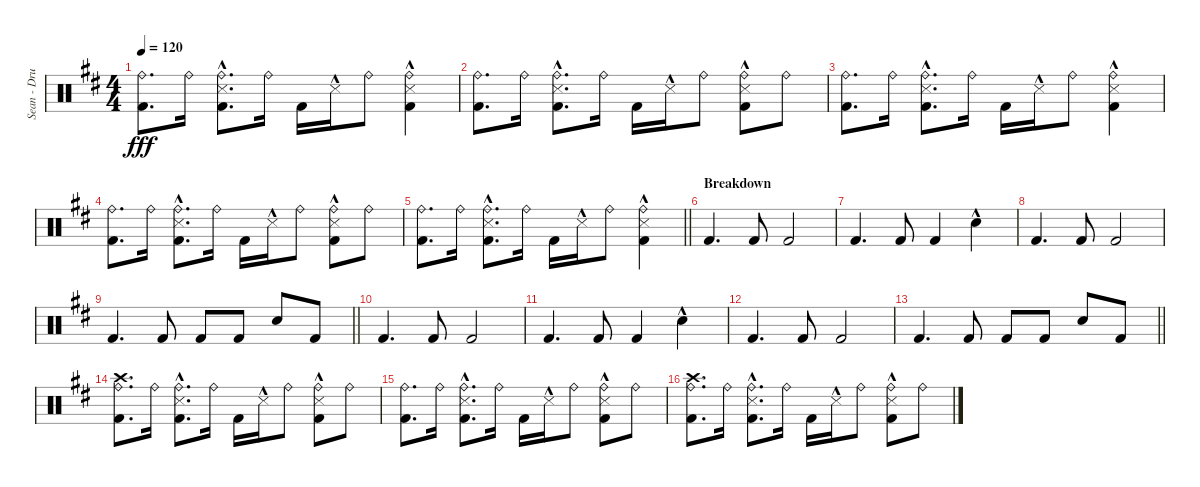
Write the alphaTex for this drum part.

\track ("Sean - Drums" "Sean - Dru") {instrument percussion}
\staff {score}
\articulation defaults
\ts (4 4)
\tempo 120
\clef neutral
\ks d
("Ride (bell)" "Kick (hit) 2").8{d dy fff} "Ride (bell)".16 ("Ride (bell)" "Metronome (hit)"{hac} "Kick (hit) 2").8{d} "Ride (bell)".16 "Kick (hit) 2".16 "Metronome (hit)"{hac}.16 "Ride (bell)".8 ("Ride (bell)" "Metronome (hit)"{hac} "Kick (hit) 2").4 |
("Ride (bell)" "Kick (hit) 2").8{d} "Ride (bell)".16 ("Ride (bell)" "Metronome (hit)"{hac} "Kick (hit) 2").8{d} "Ride (bell)".16 "Kick (hit) 2".16 "Metronome (hit)"{hac}.16 "Ride (bell)".8 ("Ride (bell)" "Metronome (hit)"{hac} "Kick (hit) 2").8 "Ride (bell)".8 |
("Ride (bell)" "Kick (hit) 2").8{d} "Ride (bell)".16 ("Ride (bell)" "Metronome (hit)"{hac} "Kick (hit) 2").8{d} "Ride (bell)".16 "Kick (hit) 2".16 "Metronome (hit)"{hac}.16 "Ride (bell)".8 ("Ride (bell)" "Metronome (hit)"{hac} "Kick (hit) 2").4 |
("Ride (bell)" "Kick (hit) 2").8{d} "Ride (bell)".16 ("Ride (bell)" "Metronome (hit)"{hac} "Kick (hit) 2").8{d} "Ride (bell)".16 "Kick (hit) 2".16 "Metronome (hit)"{hac}.16 "Ride (bell)".8 ("Ride (bell)" "Metronome (hit)"{hac} "Kick (hit) 2").8 "Ride (bell)".8 |
\barLineRight lightlight
("Ride (bell)" "Kick (hit) 2").8{d} "Ride (bell)".16 ("Ride (bell)" "Metronome (hit)"{hac} "Kick (hit) 2").8{d} "Ride (bell)".16 "Kick (hit) 2".16 "Metronome (hit)"{hac}.16 "Ride (bell)".8 ("Ride (bell)" "Metronome (hit)"{hac} "Kick (hit) 2").4 |
\section ("" "Breakdown")
"Kick (hit) 2".4{d} "Kick (hit) 2".8 "Kick (hit) 2".2 |
"Kick (hit) 2".4{d} "Kick (hit) 2".8 "Kick (hit) 2".4 "Snare (hit) 2"{hac}.4 |
"Kick (hit) 2".4{d} "Kick (hit) 2".8 "Kick (hit) 2".2 |
\barLineRight lightlight "Kick (hit) 2".4{d} "Kick (hit) 2".8 "Kick (hit) 2".8 "Kick (hit) 2".8 "Snare (hit) 2".8 "Kick (hit) 2".8
|
"Kick (hit) 2".4{d} "Kick (hit) 2".8 "Kick (hit) 2".2 |
"Kick (hit) 2".4{d} "Kick (hit) 2".8 "Kick (hit) 2".4 "Snare (hit) 2"{hac}.4 |
"Kick (hit) 2".4{d} "Kick (hit) 2".8 "Kick (hit) 2".2 |
\barLineRight lightlight "Kick (hit) 2".4{d} "Kick (hit) 2".8 "Kick (hit) 2".8 "Kick (hit) 2".8 "Snare (hit) 2".8 "Kick (hit) 2".8
|
("Ride (bell)" "Crash high (hit)" "Kick (hit) 2").8{d} "Ride (bell)".16 ("Ride (bell)" "Metronome (hit)"{hac} "Kick (hit) 2").8{d} "Ride (bell)".16 "Kick (hit) 2".16 "Metronome (hit)"{hac}.16 "Ride (bell)".8 ("Ride (bell)" "Metronome (hit)"{hac} "Kick (hit) 2").8 "Ride (bell)".8 |
("Ride (bell)" "Kick (hit) 2").8{d} "Ride (bell)".16 ("Ride (bell)" "Metronome (hit)"{hac} "Kick (hit) 2").8{d} "Ride (bell)".16 "Kick (hit) 2".16 "Metronome (hit)"{hac}.16 "Ride (bell)".8 ("Ride (bell)" "Metronome (hit)"{hac} "Kick (hit) 2").8 "Ride (bell)".8 |
("Ride (bell)" "Crash high (hit)" "Kick (hit) 2").8{d} "Ride (bell)".16 ("Ride (bell)" "Metronome (hit)"{hac} "Kick (hit) 2").8{d} "Ride (bell)".16 "Kick (hit) 2".16 "Metronome (hit)"{hac}.16 "Ride (bell)".8 ("Ride (bell)" "Metronome (hit)"{hac} "Kick (hit) 2").8 "Ride (bell)".8
